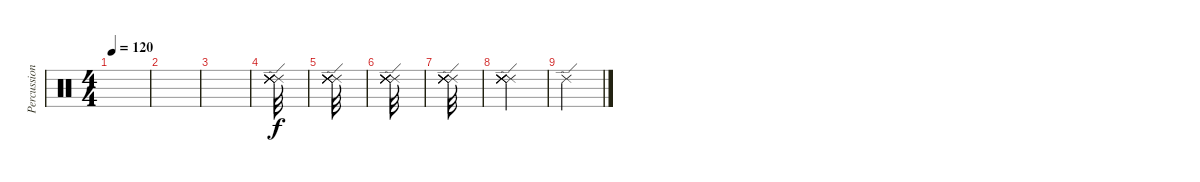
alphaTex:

\track ("Percussion" "Percussion") {instrument percussion}
\staff {score}
\articulation defaults
\ts (4 4)
\tempo 120
\clef neutral
\ks c
|
|
|
("Ride (edge) 2" "Ride (edge) 2" "Ride (edge) 2" "Ride (edge) 2" "Ride (edge) 2" "Ride (edge) 2").32 |
("Ride (edge) 2" "Ride (edge) 2" "Ride (edge) 2" "Ride (edge) 2" "Ride (edge) 2" "Ride (edge) 2").32 |
("Ride (edge) 2" "Ride (edge) 2" "Ride (edge) 2" "Ride (edge) 2" "Ride (edge) 2" "Ride (edge) 2").32 |
("Ride (edge) 2" "Ride (edge) 2" "Ride (edge) 2" "Ride (edge) 2" "Ride (edge) 2" "Ride (edge) 2").32 |
("Ride (edge) 2" "Ride (edge) 2" "Ride (edge) 2" "Ride (edge) 2" "Ride (edge) 2" "Ride (edge) 2").4 |
"Ride (edge) 2".4
